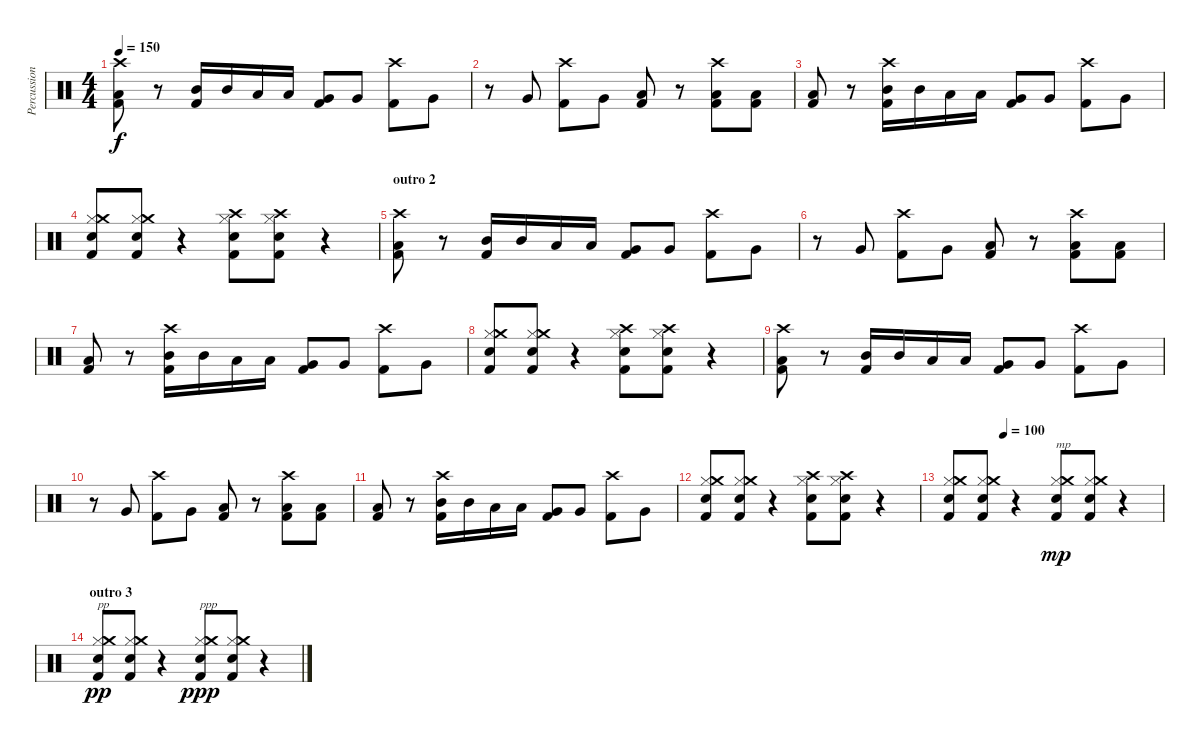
\track ("Percussions" "Percussion") {instrument percussion}
\staff {score}
\articulation defaults
\ts (4 4)
\tempo 150
\clef neutral
\ks c
("Crash high (hit)" "Low Floor Tom (hit)" "Kick (hit) 2").8{dy f} r.8 ("Mid Tom (hit)" "Kick (hit) 2").16 "Mid Tom (hit)".16 "Low Tom (hit)".16 "Low Tom (hit)".16 ("Very Low Tom (hit)" "Kick (hit) 2").8 "Very Low Tom (hit)".8 ("Crash high (hit)" "Kick (hit) 2").8 "Very Low Tom (hit)".8 |
r.8 "Very Low Tom (hit)".8 ("Crash high (hit)" "Kick (hit) 2").8 "Very Low Tom (hit)".8 ("Low Floor Tom (hit)" "Kick (hit) 2").8 r.8 ("Crash high (hit)" "Low Floor Tom (hit)" "Kick (hit) 2").8 ("Low Floor Tom (hit)" "Kick (hit) 2").8 |
("Low Floor Tom (hit)" "Kick (hit) 2").8 r.8 ("Crash high (hit)" "Mid Tom (hit)" "Kick (hit) 2").16 "Mid Tom (hit)".16 "Low Tom (hit)".16 "Low Tom (hit)".16 ("Very Low Tom (hit)" "Kick (hit) 2").8 "Very Low Tom (hit)".8 ("Crash high (hit)" "Kick (hit) 2").8 "Very Low Tom (hit)".8 |
("Hi-Hat (closed)" "Crash medium (hit)" "Electric Snare (hit)" "Kick (hit) 2").8 ("Hi-Hat (closed)" "Crash medium (hit)" "Electric Snare (hit)" "Kick (hit) 2").8 r.4 ("Hi-Hat (closed)" "Crash high (hit)" "Electric Snare (hit)" "Kick (hit) 2").8 ("Hi-Hat (closed)" "Crash high (hit)" "Electric Snare (hit)" "Kick (hit) 2").8 r.4 |
\section ("" "outro 2")
("Crash high (hit)" "Low Floor Tom (hit)" "Kick (hit) 2").8 r.8 ("Mid Tom (hit)" "Kick (hit) 2").16 "Mid Tom (hit)".16 "Low Tom (hit)".16 "Low Tom (hit)".16 ("Very Low Tom (hit)" "Kick (hit) 2").8 "Very Low Tom (hit)".8 ("Crash high (hit)" "Kick (hit) 2").8 "Very Low Tom (hit)".8 |
r.8 "Very Low Tom (hit)".8 ("Crash high (hit)" "Kick (hit) 2").8 "Very Low Tom (hit)".8 ("Low Floor Tom (hit)" "Kick (hit) 2").8 r.8 ("Crash high (hit)" "Low Floor Tom (hit)" "Kick (hit) 2").8 ("Low Floor Tom (hit)" "Kick (hit) 2").8 |
("Low Floor Tom (hit)" "Kick (hit) 2").8 r.8 ("Crash high (hit)" "Mid Tom (hit)" "Kick (hit) 2").16 "Mid Tom (hit)".16 "Low Tom (hit)".16 "Low Tom (hit)".16 ("Very Low Tom (hit)" "Kick (hit) 2").8 "Very Low Tom (hit)".8 ("Crash high (hit)" "Kick (hit) 2").8 "Very Low Tom (hit)".8 |
("Hi-Hat (closed)" "Crash medium (hit)" "Electric Snare (hit)" "Kick (hit) 2").8 ("Hi-Hat (closed)" "Crash medium (hit)" "Electric Snare (hit)" "Kick (hit) 2").8 r.4 ("Hi-Hat (closed)" "Crash high (hit)" "Electric Snare (hit)" "Kick (hit) 2").8 ("Hi-Hat (closed)" "Crash high (hit)" "Electric Snare (hit)" "Kick (hit) 2").8 r.4 |
("Crash high (hit)" "Low Floor Tom (hit)" "Kick (hit) 2").8 r.8 ("Mid Tom (hit)" "Kick (hit) 2").16 "Mid Tom (hit)".16 "Low Tom (hit)".16 "Low Tom (hit)".16 ("Very Low Tom (hit)" "Kick (hit) 2").8 "Very Low Tom (hit)".8 ("Crash high (hit)" "Kick (hit) 2").8 "Very Low Tom (hit)".8 |
r.8 "Very Low Tom (hit)".8 ("Crash high (hit)" "Kick (hit) 2").8 "Very Low Tom (hit)".8 ("Low Floor Tom (hit)" "Kick (hit) 2").8 r.8 ("Crash high (hit)" "Low Floor Tom (hit)" "Kick (hit) 2").8 ("Low Floor Tom (hit)" "Kick (hit) 2").8 |
("Low Floor Tom (hit)" "Kick (hit) 2").8 r.8 ("Crash high (hit)" "Mid Tom (hit)" "Kick (hit) 2").16 "Mid Tom (hit)".16 "Low Tom (hit)".16 "Low Tom (hit)".16 ("Very Low Tom (hit)" "Kick (hit) 2").8 "Very Low Tom (hit)".8 ("Crash high (hit)" "Kick (hit) 2").8 "Very Low Tom (hit)".8 |
("Hi-Hat (closed)" "Crash medium (hit)" "Electric Snare (hit)" "Kick (hit) 2").8 ("Hi-Hat (closed)" "Crash medium (hit)" "Electric Snare (hit)" "Kick (hit) 2").8 r.4 ("Hi-Hat (closed)" "Crash high (hit)" "Electric Snare (hit)" "Kick (hit) 2").8 ("Hi-Hat (closed)" "Crash high (hit)" "Electric Snare (hit)" "Kick (hit) 2").8 r.4 |
\tempo (100 0.25)
("Hi-Hat (closed)" "Crash medium (hit)" "Electric Snare (hit)" "Kick (hit) 2").8 ("Hi-Hat (closed)" "Crash medium (hit)" "Electric Snare (hit)" "Kick (hit) 2").8 r.4 ("Hi-Hat (closed)" "Crash medium (hit)" "Electric Snare (hit)" "Kick (hit) 2").8{txt "mp" dy mp} ("Hi-Hat (closed)" "Crash medium (hit)" "Electric Snare (hit)" "Kick (hit) 2").8 r.4 |
\section ("" "outro 3")
("Hi-Hat (closed)" "Crash medium (hit)" "Electric Snare (hit)" "Kick (hit) 2").8{txt "pp" dy pp} ("Hi-Hat (closed)" "Crash medium (hit)" "Electric Snare (hit)" "Kick (hit) 2").8 r.4 ("Hi-Hat (closed)" "Crash medium (hit)" "Electric Snare (hit)" "Kick (hit) 2").8{txt "ppp" dy ppp} ("Hi-Hat (closed)" "Crash medium (hit)" "Electric Snare (hit)" "Kick (hit) 2").8 r.4
